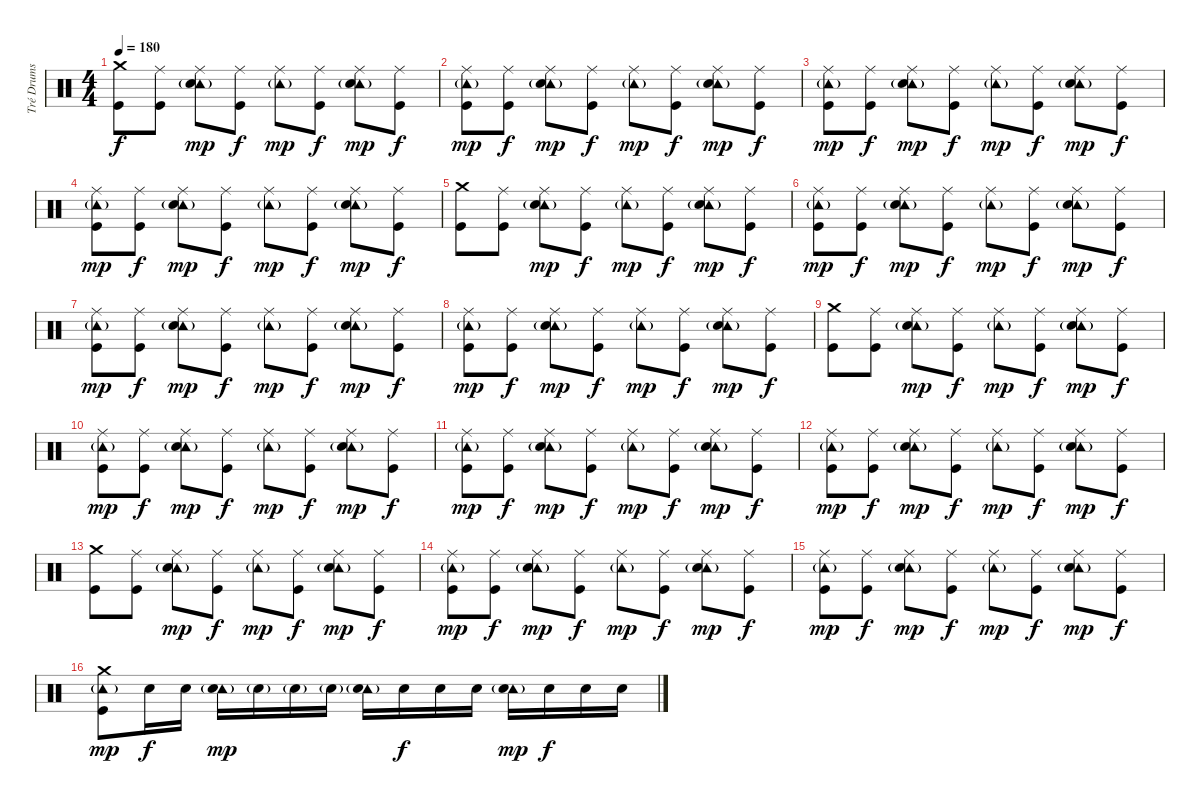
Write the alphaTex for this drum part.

\track ("Tré Drums" "Tré Drums") {instrument percussion}
\staff {score}
\articulation defaults
\ts (4 4)
\tempo 180
\clef neutral
\ks c
("Crash medium (hit)" "Kick (hit)").8{dy f} ("Ride (middle)" "Kick (hit)").8 ("Tambourine (hit)"{g} "Ride (middle)" "Electric Snare (hit)").8{dy mp} ("Ride (middle)" "Kick (hit)").8{dy f} ("Tambourine (hit)"{g} "Ride (middle)").8{dy mp} ("Ride (middle)" "Kick (hit)").8{dy f} ("Tambourine (hit)"{g} "Ride (middle)" "Electric Snare (hit)").8{dy mp} ("Ride (middle)" "Kick (hit)").8{dy f} |
("Tambourine (hit)"{g} "Ride (middle)" "Kick (hit)").8{dy mp} ("Ride (middle)" "Kick (hit)").8{dy f} ("Tambourine (hit)"{g} "Ride (middle)" "Electric Snare (hit)").8{dy mp} ("Ride (middle)" "Kick (hit)").8{dy f} ("Tambourine (hit)"{g} "Ride (middle)").8{dy mp} ("Ride (middle)" "Kick (hit)").8{dy f} ("Tambourine (hit)"{g} "Ride (middle)" "Electric Snare (hit)").8{dy mp} ("Ride (middle)" "Kick (hit)").8{dy f} |
("Tambourine (hit)"{g} "Ride (middle)" "Kick (hit)").8{dy mp} ("Ride (middle)" "Kick (hit)").8{dy f} ("Tambourine (hit)"{g} "Ride (middle)" "Electric Snare (hit)").8{dy mp} ("Ride (middle)" "Kick (hit)").8{dy f} ("Tambourine (hit)"{g} "Ride (middle)").8{dy mp} ("Ride (middle)" "Kick (hit)").8{dy f} ("Tambourine (hit)"{g} "Ride (middle)" "Electric Snare (hit)").8{dy mp} ("Ride (middle)" "Kick (hit)").8{dy f} |
("Tambourine (hit)"{g} "Ride (middle)" "Kick (hit)").8{dy mp} ("Ride (middle)" "Kick (hit)").8{dy f} ("Tambourine (hit)"{g} "Ride (middle)" "Electric Snare (hit)").8{dy mp} ("Ride (middle)" "Kick (hit)").8{dy f} ("Tambourine (hit)"{g} "Ride (middle)").8{dy mp} ("Ride (middle)" "Kick (hit)").8{dy f} ("Tambourine (hit)"{g} "Ride (middle)" "Electric Snare (hit)").8{dy mp} ("Ride (middle)" "Kick (hit)").8{dy f} |
("Crash medium (hit)" "Kick (hit)").8 ("Ride (middle)" "Kick (hit)").8 ("Tambourine (hit)"{g} "Ride (middle)" "Electric Snare (hit)").8{dy mp} ("Ride (middle)" "Kick (hit)").8{dy f} ("Tambourine (hit)"{g} "Ride (middle)").8{dy mp} ("Ride (middle)" "Kick (hit)").8{dy f} ("Tambourine (hit)"{g} "Ride (middle)" "Electric Snare (hit)").8{dy mp} ("Ride (middle)" "Kick (hit)").8{dy f} |
("Tambourine (hit)"{g} "Ride (middle)" "Kick (hit)").8{dy mp} ("Ride (middle)" "Kick (hit)").8{dy f} ("Tambourine (hit)"{g} "Ride (middle)" "Electric Snare (hit)").8{dy mp} ("Ride (middle)" "Kick (hit)").8{dy f} ("Tambourine (hit)"{g} "Ride (middle)").8{dy mp} ("Ride (middle)" "Kick (hit)").8{dy f} ("Tambourine (hit)"{g} "Ride (middle)" "Electric Snare (hit)").8{dy mp} ("Ride (middle)" "Kick (hit)").8{dy f} |
("Tambourine (hit)"{g} "Ride (middle)" "Kick (hit)").8{dy mp} ("Ride (middle)" "Kick (hit)").8{dy f} ("Tambourine (hit)"{g} "Ride (middle)" "Electric Snare (hit)").8{dy mp} ("Ride (middle)" "Kick (hit)").8{dy f} ("Tambourine (hit)"{g} "Ride (middle)").8{dy mp} ("Ride (middle)" "Kick (hit)").8{dy f} ("Tambourine (hit)"{g} "Ride (middle)" "Electric Snare (hit)").8{dy mp} ("Ride (middle)" "Kick (hit)").8{dy f} |
("Tambourine (hit)"{g} "Ride (middle)" "Kick (hit)").8{dy mp} ("Ride (middle)" "Kick (hit)").8{dy f} ("Tambourine (hit)"{g} "Ride (middle)" "Electric Snare (hit)").8{dy mp} ("Ride (middle)" "Kick (hit)").8{dy f} ("Tambourine (hit)"{g} "Ride (middle)").8{dy mp} ("Ride (middle)" "Kick (hit)").8{dy f} ("Tambourine (hit)"{g} "Ride (middle)" "Electric Snare (hit)").8{dy mp} ("Ride (middle)" "Kick (hit)").8{dy f} |
("Crash medium (hit)" "Kick (hit)").8 ("Ride (middle)" "Kick (hit)").8 ("Tambourine (hit)"{g} "Ride (middle)" "Electric Snare (hit)").8{dy mp} ("Ride (middle)" "Kick (hit)").8{dy f} ("Tambourine (hit)"{g} "Ride (middle)").8{dy mp} ("Ride (middle)" "Kick (hit)").8{dy f} ("Tambourine (hit)"{g} "Ride (middle)" "Electric Snare (hit)").8{dy mp} ("Ride (middle)" "Kick (hit)").8{dy f} |
("Tambourine (hit)"{g} "Ride (middle)" "Kick (hit)").8{dy mp} ("Ride (middle)" "Kick (hit)").8{dy f} ("Tambourine (hit)"{g} "Ride (middle)" "Electric Snare (hit)").8{dy mp} ("Ride (middle)" "Kick (hit)").8{dy f} ("Tambourine (hit)"{g} "Ride (middle)").8{dy mp} ("Ride (middle)" "Kick (hit)").8{dy f} ("Tambourine (hit)"{g} "Ride (middle)" "Electric Snare (hit)").8{dy mp} ("Ride (middle)" "Kick (hit)").8{dy f} |
("Tambourine (hit)"{g} "Ride (middle)" "Kick (hit)").8{dy mp} ("Ride (middle)" "Kick (hit)").8{dy f} ("Tambourine (hit)"{g} "Ride (middle)" "Electric Snare (hit)").8{dy mp} ("Ride (middle)" "Kick (hit)").8{dy f} ("Tambourine (hit)"{g} "Ride (middle)").8{dy mp} ("Ride (middle)" "Kick (hit)").8{dy f} ("Tambourine (hit)"{g} "Ride (middle)" "Electric Snare (hit)").8{dy mp} ("Ride (middle)" "Kick (hit)").8{dy f} |
("Tambourine (hit)"{g} "Ride (middle)" "Kick (hit)").8{dy mp} ("Ride (middle)" "Kick (hit)").8{dy f} ("Tambourine (hit)"{g} "Ride (middle)" "Electric Snare (hit)").8{dy mp} ("Ride (middle)" "Kick (hit)").8{dy f} ("Tambourine (hit)"{g} "Ride (middle)").8{dy mp} ("Ride (middle)" "Kick (hit)").8{dy f} ("Tambourine (hit)"{g} "Ride (middle)" "Electric Snare (hit)").8{dy mp} ("Ride (middle)" "Kick (hit)").8{dy f} |
("Crash medium (hit)" "Kick (hit)").8 ("Ride (middle)" "Kick (hit)").8 ("Tambourine (hit)"{g} "Ride (middle)" "Electric Snare (hit)").8{dy mp} ("Ride (middle)" "Kick (hit)").8{dy f} ("Tambourine (hit)"{g} "Ride (middle)").8{dy mp} ("Ride (middle)" "Kick (hit)").8{dy f} ("Tambourine (hit)"{g} "Ride (middle)" "Electric Snare (hit)").8{dy mp} ("Ride (middle)" "Kick (hit)").8{dy f} |
("Tambourine (hit)"{g} "Ride (middle)" "Kick (hit)").8{dy mp} ("Ride (middle)" "Kick (hit)").8{dy f} ("Tambourine (hit)"{g} "Ride (middle)" "Electric Snare (hit)").8{dy mp} ("Ride (middle)" "Kick (hit)").8{dy f} ("Tambourine (hit)"{g} "Ride (middle)").8{dy mp} ("Ride (middle)" "Kick (hit)").8{dy f} ("Tambourine (hit)"{g} "Ride (middle)" "Electric Snare (hit)").8{dy mp} ("Ride (middle)" "Kick (hit)").8{dy f} |
("Tambourine (hit)"{g} "Ride (middle)" "Kick (hit)").8{dy mp} ("Ride (middle)" "Kick (hit)").8{dy f} ("Tambourine (hit)"{g} "Ride (middle)" "Electric Snare (hit)").8{dy mp} ("Ride (middle)" "Kick (hit)").8{dy f} ("Tambourine (hit)"{g} "Ride (middle)").8{dy mp} ("Ride (middle)" "Kick (hit)").8{dy f} ("Tambourine (hit)"{g} "Ride (middle)" "Electric Snare (hit)").8{dy mp} ("Ride (middle)" "Kick (hit)").8{dy f} |
("Tambourine (hit)"{g} "Crash medium (hit)" "Kick (hit)").8{dy mp} "Electric Snare (hit)".16{dy f} "Electric Snare (hit)".16 ("Tambourine (hit)"{g} "Electric Snare (hit)").16{dy mp} "Electric Snare (hit)"{g}.16 "Electric Snare (hit)"{g}.16 "Electric Snare (hit)"{g}.16 ("Tambourine (hit)"{g} "Electric Snare (hit)").16 "Electric Snare (hit)".16{dy f} "Electric Snare (hit)".16 "Electric Snare (hit)".16 ("Tambourine (hit)"{g} "Electric Snare (hit)").16{dy mp} "Electric Snare (hit)".16{dy f} "Electric Snare (hit)".16 "Electric Snare (hit)".16
